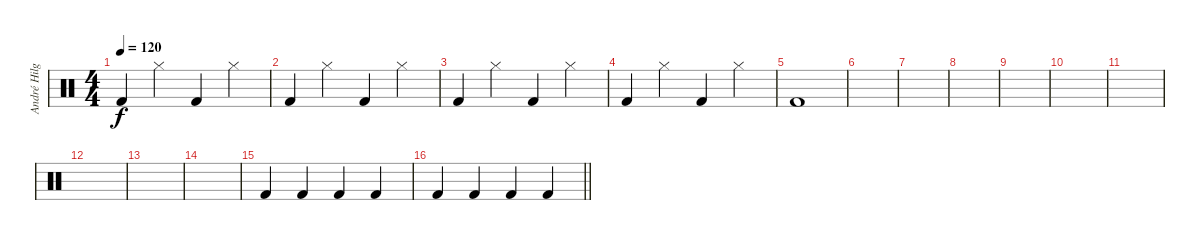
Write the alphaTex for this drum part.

\track ("André Hilgers" "André Hilg") {instrument percussion}
\staff {score}
\articulation defaults
\ts (4 4)
\tempo 120
\clef neutral
\ks c "Kick (hit) 2".4{dy f} "Hi-Hat (closed)".4 "Kick (hit) 2".4 "Hi-Hat (closed)".4
|
"Kick (hit) 2".4 "Hi-Hat (closed)".4 "Kick (hit) 2".4 "Hi-Hat (closed)".4 |
"Kick (hit) 2".4 "Hi-Hat (closed)".4 "Kick (hit) 2".4 "Hi-Hat (closed)".4 |
"Kick (hit) 2".4 "Hi-Hat (closed)".4 "Kick (hit) 2".4 "Hi-Hat (closed)".4 |
"Kick (hit) 2".1 |
|
|
|
|
|
|
|
|
|
"Kick (hit) 2".4 "Kick (hit) 2".4 "Kick (hit) 2".4 "Kick (hit) 2".4 |
\barLineRight lightlight "Kick (hit) 2".4 "Kick (hit) 2".4 "Kick (hit) 2".4 "Kick (hit) 2".4
